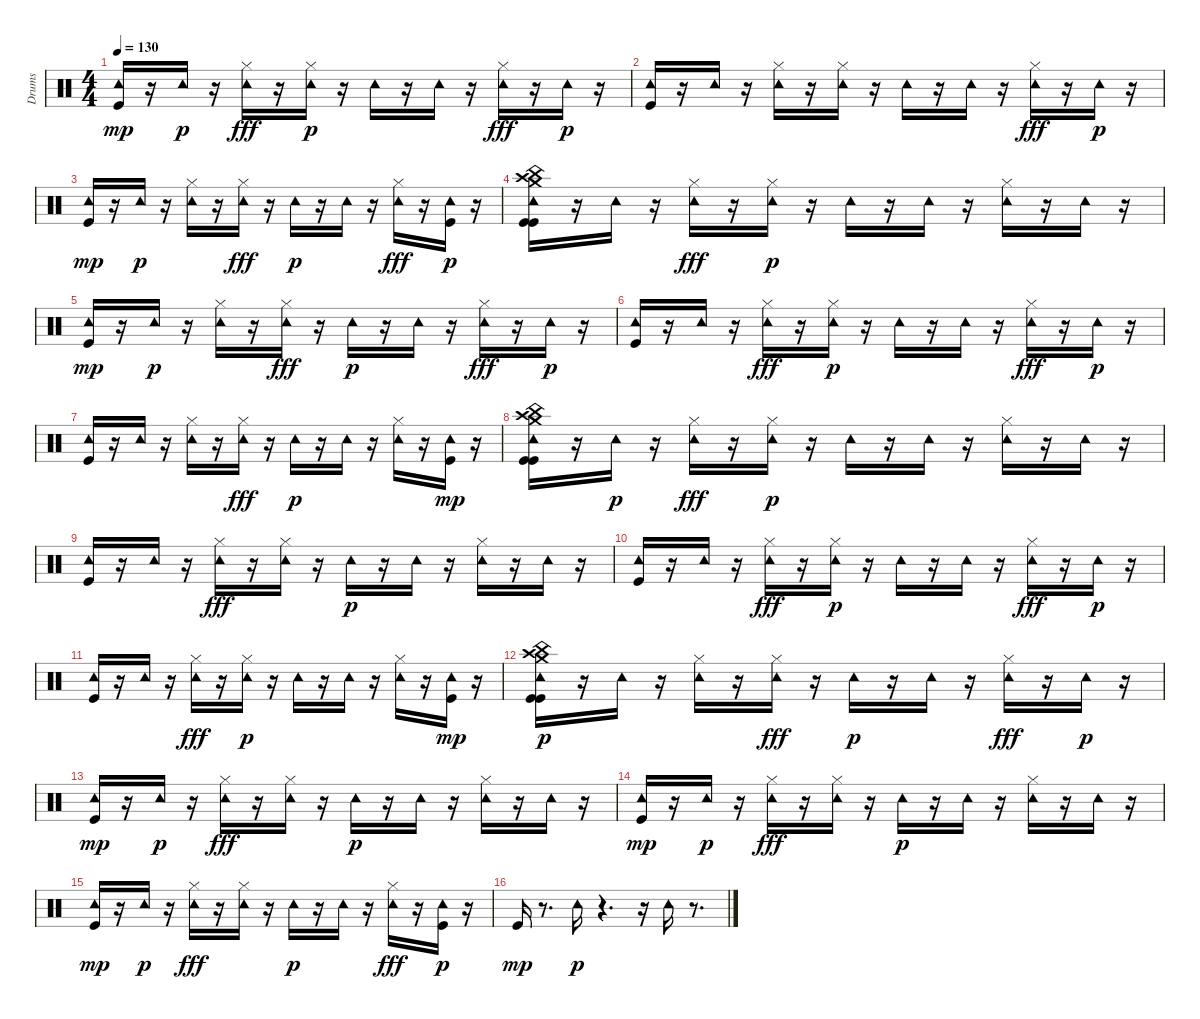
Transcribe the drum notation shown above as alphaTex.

\track ("Drums" "Drums") {instrument percussion}
\staff {score}
\articulation defaults
\ts (4 4)
\tempo 130
\clef neutral
\ks c
("Tambourine (hit)" "Kick (hit)").16{dy mp} r.16 "Tambourine (hit)".16{dy p} r.16 ("Tambourine (hit)" "Hi-Hat (closed)").16{dy fff} r.16 ("Hi-Hat (closed)" "Tambourine (hit)").16{dy p} r.16 "Tambourine (hit)".16 r.16 "Tambourine (hit)".16 r.16 ("Tambourine (hit)" "Hi-Hat (closed)").16{dy fff} r.16 "Tambourine (hit)".16{dy p} r.16 |
("Kick (hit)" "Tambourine (hit)").16 r.16 "Tambourine (hit)".16 r.16 ("Hi-Hat (closed)" "Tambourine (hit)").16 r.16 ("Hi-Hat (closed)" "Tambourine (hit)").16 r.16 "Tambourine (hit)".16 r.16 "Tambourine (hit)".16 r.16 ("Tambourine (hit)" "Hi-Hat (closed)").16{dy fff} r.16 "Tambourine (hit)".16{dy p} r.16 |
("Tambourine (hit)" "Kick (hit)").16{dy mp} r.16 "Tambourine (hit)".16{dy p} r.16 ("Hi-Hat (closed)" "Tambourine (hit)").16 r.16 ("Tambourine (hit)" "Hi-Hat (closed)").16{dy fff} r.16 "Tambourine (hit)".16{dy p} r.16 "Tambourine (hit)".16 r.16 ("Tambourine (hit)" "Hi-Hat (closed)").16{dy fff} r.16 ("Kick (hit)" "Tambourine (hit)").16{dy p} r.16 |
("Tambourine (hit)" "Kick (hit)" "Crash high (hit)" "Kick (hit)" "China (hit)" "Crash medium (hit)").16 r.16 "Tambourine (hit)".16 r.16 ("Tambourine (hit)" "Hi-Hat (closed)").16{dy fff} r.16 ("Hi-Hat (closed)" "Tambourine (hit)").16{dy p} r.16 "Tambourine (hit)".16 r.16 "Tambourine (hit)".16 r.16 ("Hi-Hat (closed)" "Tambourine (hit)").16 r.16 "Tambourine (hit)".16 r.16 |
("Tambourine (hit)" "Kick (hit)").16{dy mp} r.16 "Tambourine (hit)".16{dy p} r.16 ("Hi-Hat (closed)" "Tambourine (hit)").16 r.16 ("Tambourine (hit)" "Hi-Hat (closed)").16{dy fff} r.16 "Tambourine (hit)".16{dy p} r.16 "Tambourine (hit)".16 r.16 ("Tambourine (hit)" "Hi-Hat (closed)").16{dy fff} r.16 "Tambourine (hit)".16{dy p} r.16 |
("Kick (hit)" "Tambourine (hit)").16 r.16 "Tambourine (hit)".16 r.16 ("Tambourine (hit)" "Hi-Hat (closed)").16{dy fff} r.16 ("Hi-Hat (closed)" "Tambourine (hit)").16{dy p} r.16 "Tambourine (hit)".16 r.16 "Tambourine (hit)".16 r.16 ("Tambourine (hit)" "Hi-Hat (closed)").16{dy fff} r.16 "Tambourine (hit)".16{dy p} r.16 |
("Kick (hit)" "Tambourine (hit)").16 r.16 "Tambourine (hit)".16 r.16 ("Hi-Hat (closed)" "Tambourine (hit)").16 r.16 ("Tambourine (hit)" "Hi-Hat (closed)").16{dy fff} r.16 "Tambourine (hit)".16{dy p} r.16 "Tambourine (hit)".16 r.16 ("Hi-Hat (closed)" "Tambourine (hit)").16 r.16 ("Tambourine (hit)" "Kick (hit)").16{dy mp} r.16 |
("Tambourine (hit)" "Kick (hit)" "Crash medium (hit)" "China (hit)" "Crash high (hit)" "Kick (hit)").16 r.16 "Tambourine (hit)".16{dy p} r.16 ("Tambourine (hit)" "Hi-Hat (closed)").16{dy fff} r.16 ("Hi-Hat (closed)" "Tambourine (hit)").16{dy p} r.16 "Tambourine (hit)".16 r.16 "Tambourine (hit)".16 r.16 ("Hi-Hat (closed)" "Tambourine (hit)").16 r.16 "Tambourine (hit)".16 r.16 |
("Kick (hit)" "Tambourine (hit)").16 r.16 "Tambourine (hit)".16 r.16 ("Tambourine (hit)" "Hi-Hat (closed)").16{dy fff} r.16 ("Tambourine (hit)" "Hi-Hat (closed)").16 r.16 "Tambourine (hit)".16{dy p} r.16 "Tambourine (hit)".16 r.16 ("Hi-Hat (closed)" "Tambourine (hit)").16 r.16 "Tambourine (hit)".16 r.16 |
("Kick (hit)" "Tambourine (hit)").16 r.16 "Tambourine (hit)".16 r.16 ("Tambourine (hit)" "Hi-Hat (closed)").16{dy fff} r.16 ("Hi-Hat (closed)" "Tambourine (hit)").16{dy p} r.16 "Tambourine (hit)".16 r.16 "Tambourine (hit)".16 r.16 ("Tambourine (hit)" "Hi-Hat (closed)").16{dy fff} r.16 "Tambourine (hit)".16{dy p} r.16 |
("Kick (hit)" "Tambourine (hit)").16 r.16 "Tambourine (hit)".16 r.16 ("Tambourine (hit)" "Hi-Hat (closed)").16{dy fff} r.16 ("Hi-Hat (closed)" "Tambourine (hit)").16{dy p} r.16 "Tambourine (hit)".16 r.16 "Tambourine (hit)".16 r.16 ("Hi-Hat (closed)" "Tambourine (hit)").16 r.16 ("Tambourine (hit)" "Kick (hit)").16{dy mp} r.16 |
("Crash high (hit)" "Kick (hit)" "Kick (hit)" "China (hit)" "Tambourine (hit)" "Crash medium (hit)").16{dy p} r.16 "Tambourine (hit)".16 r.16 ("Hi-Hat (closed)" "Tambourine (hit)").16 r.16 ("Tambourine (hit)" "Hi-Hat (closed)").16{dy fff} r.16 "Tambourine (hit)".16{dy p} r.16 "Tambourine (hit)".16 r.16 ("Tambourine (hit)" "Hi-Hat (closed)").16{dy fff} r.16 "Tambourine (hit)".16{dy p} r.16 |
("Tambourine (hit)" "Kick (hit)").16{dy mp} r.16 "Tambourine (hit)".16{dy p} r.16 ("Tambourine (hit)" "Hi-Hat (closed)").16{dy fff} r.16 ("Tambourine (hit)" "Hi-Hat (closed)").16 r.16 "Tambourine (hit)".16{dy p} r.16 "Tambourine (hit)".16 r.16 ("Hi-Hat (closed)" "Tambourine (hit)").16 r.16 "Tambourine (hit)".16 r.16 |
("Tambourine (hit)" "Kick (hit)").16{dy mp} r.16 "Tambourine (hit)".16{dy p} r.16 ("Tambourine (hit)" "Hi-Hat (closed)").16{dy fff} r.16 ("Tambourine (hit)" "Hi-Hat (closed)").16 r.16 "Tambourine (hit)".16{dy p} r.16 "Tambourine (hit)".16 r.16 ("Hi-Hat (closed)" "Tambourine (hit)").16 r.16 "Tambourine (hit)".16 r.16 |
("Tambourine (hit)" "Kick (hit)").16{dy mp} r.16 "Tambourine (hit)".16{dy p} r.16 ("Tambourine (hit)" "Hi-Hat (closed)").16{dy fff} r.16 ("Tambourine (hit)" "Hi-Hat (closed)").16 r.16 "Tambourine (hit)".16{dy p} r.16 "Tambourine (hit)".16 r.16 ("Tambourine (hit)" "Hi-Hat (closed)").16{dy fff} r.16 ("Kick (hit)" "Tambourine (hit)").16{dy p} r.16 |
"Kick (hit)".16{dy mp} r.8{d} "Tambourine (hit)".16{dy p} r.4{d} r.16 "Tambourine (hit)".16 r.8{d}
